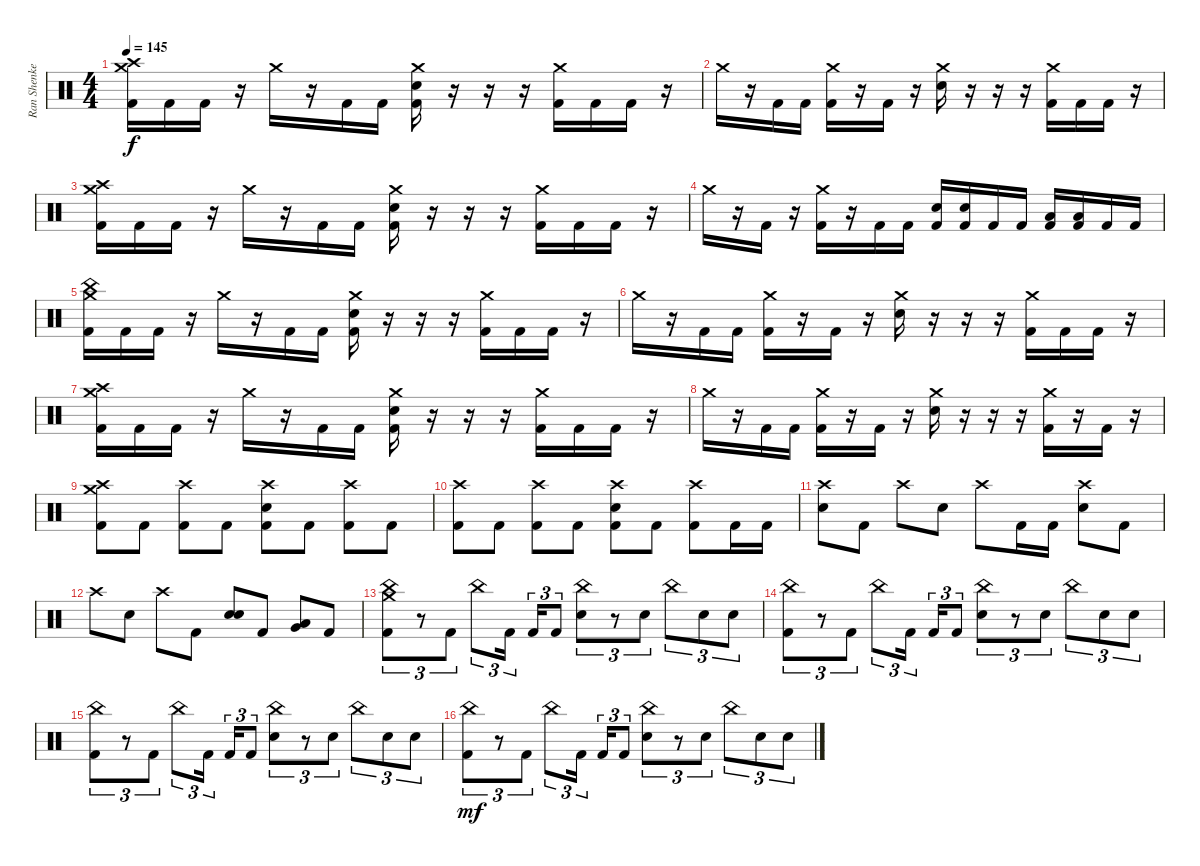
\track ("Ran Shenkerman" "Ran Shenke") {instrument percussion}
\staff {score}
\articulation defaults
\ts (4 4)
\tempo 145
\clef neutral
\ks c
("Crash medium (hit)" "Crash high (hit)" "Kick (hit) 2").16{dy f} "Kick (hit) 2".16 "Kick (hit) 2".16 r.16 "Crash medium (hit)".16 r.16 "Kick (hit) 2".16 "Kick (hit) 2".16 ("Crash medium (hit)" "Snare (hit) 2" "Kick (hit) 2").16 r.16 r.16 r.16 ("Crash medium (hit)" "Kick (hit) 2").16 "Kick (hit) 2".16 "Kick (hit) 2".16 r.16 |
"Crash medium (hit)".16 r.16 "Kick (hit) 2".16 "Kick (hit) 2".16 ("Crash medium (hit)" "Kick (hit) 2").16 r.16 "Kick (hit) 2".16 r.16 ("Crash medium (hit)" "Snare (hit) 2").16 r.16 r.16 r.16 ("Crash medium (hit)" "Kick (hit) 2").16 "Kick (hit) 2".16 "Kick (hit) 2".16 r.16 |
("Crash medium (hit)" "Crash high (hit)" "Kick (hit) 2").16 "Kick (hit) 2".16 "Kick (hit) 2".16 r.16 "Crash medium (hit)".16 r.16 "Kick (hit) 2".16 "Kick (hit) 2".16 ("Crash medium (hit)" "Snare (hit) 2" "Kick (hit) 2").16 r.16 r.16 r.16 ("Crash medium (hit)" "Kick (hit) 2").16 "Kick (hit) 2".16 "Kick (hit) 2".16 r.16 |
"Crash medium (hit)".16 r.16 "Kick (hit) 2".16 r.16 ("Crash medium (hit)" "Kick (hit) 2").16 r.16 "Kick (hit) 2".16 "Kick (hit) 2".16 ("Snare (hit) 2" "Kick (hit) 2").16 ("Snare (hit) 2" "Kick (hit) 2").16 "Kick (hit) 2".16 "Kick (hit) 2".16 ("Low Floor Tom (hit)" "Kick (hit) 2").16 ("Low Floor Tom (hit)" "Kick (hit) 2").16 "Kick (hit) 2".16 "Kick (hit) 2".16 |
("Crash medium (hit)" "China (hit)" "Kick (hit) 2").16 "Kick (hit) 2".16 "Kick (hit) 2".16 r.16 "Crash medium (hit)".16 r.16 "Kick (hit) 2".16 "Kick (hit) 2".16 ("Crash medium (hit)" "Snare (hit) 2" "Kick (hit) 2").16 r.16 r.16 r.16 ("Crash medium (hit)" "Kick (hit) 2").16 "Kick (hit) 2".16 "Kick (hit) 2".16 r.16 |
"Crash medium (hit)".16 r.16 "Kick (hit) 2".16 "Kick (hit) 2".16 ("Crash medium (hit)" "Kick (hit) 2").16 r.16 "Kick (hit) 2".16 r.16 ("Crash medium (hit)" "Snare (hit) 2").16 r.16 r.16 r.16 ("Crash medium (hit)" "Kick (hit) 2").16 "Kick (hit) 2".16 "Kick (hit) 2".16 r.16 |
("Crash medium (hit)" "Crash high (hit)" "Kick (hit) 2").16 "Kick (hit) 2".16 "Kick (hit) 2".16 r.16 "Crash medium (hit)".16 r.16 "Kick (hit) 2".16 "Kick (hit) 2".16 ("Crash medium (hit)" "Snare (hit) 2" "Kick (hit) 2").16 r.16 r.16 r.16 ("Crash medium (hit)" "Kick (hit) 2").16 "Kick (hit) 2".16 "Kick (hit) 2".16 r.16 |
"Crash medium (hit)".16 r.16 "Kick (hit) 2".16 "Kick (hit) 2".16 ("Crash medium (hit)" "Kick (hit) 2").16 r.16 "Kick (hit) 2".16 r.16 ("Crash medium (hit)" "Snare (hit) 2").16 r.16 r.16 r.16 ("Crash medium (hit)" "Kick (hit) 2").16 r.16 "Kick (hit) 2".16 r.16 |
("Crash high (hit)" "Crash medium (hit)" "Kick (hit) 2").8 "Kick (hit) 2".8 ("Crash high (hit)" "Kick (hit) 2").8 "Kick (hit) 2".8 ("Crash high (hit)" "Snare (hit) 2" "Kick (hit) 2").8 "Kick (hit) 2".8 ("Crash high (hit)" "Kick (hit) 2").8 "Kick (hit) 2".8 |
("Crash high (hit)" "Kick (hit) 2").8 "Kick (hit) 2".8 ("Crash high (hit)" "Kick (hit) 2").8 "Kick (hit) 2".8 ("Crash high (hit)" "Snare (hit) 2" "Kick (hit) 2").8 "Kick (hit) 2".8 ("Crash high (hit)" "Kick (hit) 2").8 "Kick (hit) 2".16 "Kick (hit) 2".16 |
("Crash high (hit)" "Snare (hit) 2").8 "Kick (hit) 2".8 "Crash high (hit)".8 "Snare (hit) 2".8 "Crash high (hit)".8 "Kick (hit) 2".16 "Kick (hit) 2".16 ("Crash high (hit)" "Snare (hit) 2").8 "Kick (hit) 2".8 |
"Crash high (hit)".8 "Snare (hit) 2".8 "Crash high (hit)".8 "Kick (hit) 2".8 ("Snare (hit) 2" "Snare (hit) 2").8 "Kick (hit) 2".8 ("Very Low Tom (hit)" "Low Floor Tom (hit)").8 "Kick (hit) 2".8 |
("China (hit)" "Crash medium (hit)" "Kick (hit) 2").8{tu (3 2)} r.8{tu (3 2)} "Kick (hit) 2".8{tu (3 2)} "China (hit)".8{tu (3 2)} "Kick (hit) 2".16{tu (3 2) beam splitsecondary} "Kick (hit) 2".16{tu (3 2)} "Kick (hit) 2".8{tu (3 2)} ("China (hit)" "Snare (hit) 2").8{tu (3 2)} r.8{tu (3 2)} "Snare (hit) 2".8{tu (3 2)} "China (hit)".8{tu (3 2)} "Snare (hit) 2".8{tu (3 2)} "Snare (hit) 2".8{tu (3 2)} |
("China (hit)" "Kick (hit) 2").8{tu (3 2)} r.8{tu (3 2)} "Kick (hit) 2".8{tu (3 2)} "China (hit)".8{tu (3 2)} "Kick (hit) 2".16{tu (3 2) beam splitsecondary} "Kick (hit) 2".16{tu (3 2)} "Kick (hit) 2".8{tu (3 2)} ("China (hit)" "Snare (hit) 2").8{tu (3 2)} r.8{tu (3 2)} "Snare (hit) 2".8{tu (3 2)} "China (hit)".8{tu (3 2)} "Snare (hit) 2".8{tu (3 2)} "Snare (hit) 2".8{tu (3 2)} |
("China (hit)" "Kick (hit) 2").8{tu (3 2)} r.8{tu (3 2)} "Kick (hit) 2".8{tu (3 2)} "China (hit)".8{tu (3 2)} "Kick (hit) 2".16{tu (3 2) beam splitsecondary} "Kick (hit) 2".16{tu (3 2)} "Kick (hit) 2".8{tu (3 2)} ("China (hit)" "Snare (hit) 2").8{tu (3 2)} r.8{tu (3 2)} "Snare (hit) 2".8{tu (3 2)} "China (hit)".8{tu (3 2)} "Snare (hit) 2".8{tu (3 2)} "Snare (hit) 2".8{tu (3 2)} |
("China (hit)" "Kick (hit) 2").8{tu (3 2) dy mf} r.8{tu (3 2)} "Kick (hit) 2".8{tu (3 2)} "China (hit)".8{tu (3 2)} "Kick (hit) 2".16{tu (3 2) beam splitsecondary} "Kick (hit) 2".16{tu (3 2)} "Kick (hit) 2".8{tu (3 2)} ("China (hit)" "Snare (hit) 2").8{tu (3 2)} r.8{tu (3 2)} "Snare (hit) 2".8{tu (3 2)} "China (hit)".8{tu (3 2)} "Snare (hit) 2".8{tu (3 2)} "Snare (hit) 2".8{tu (3 2)}
